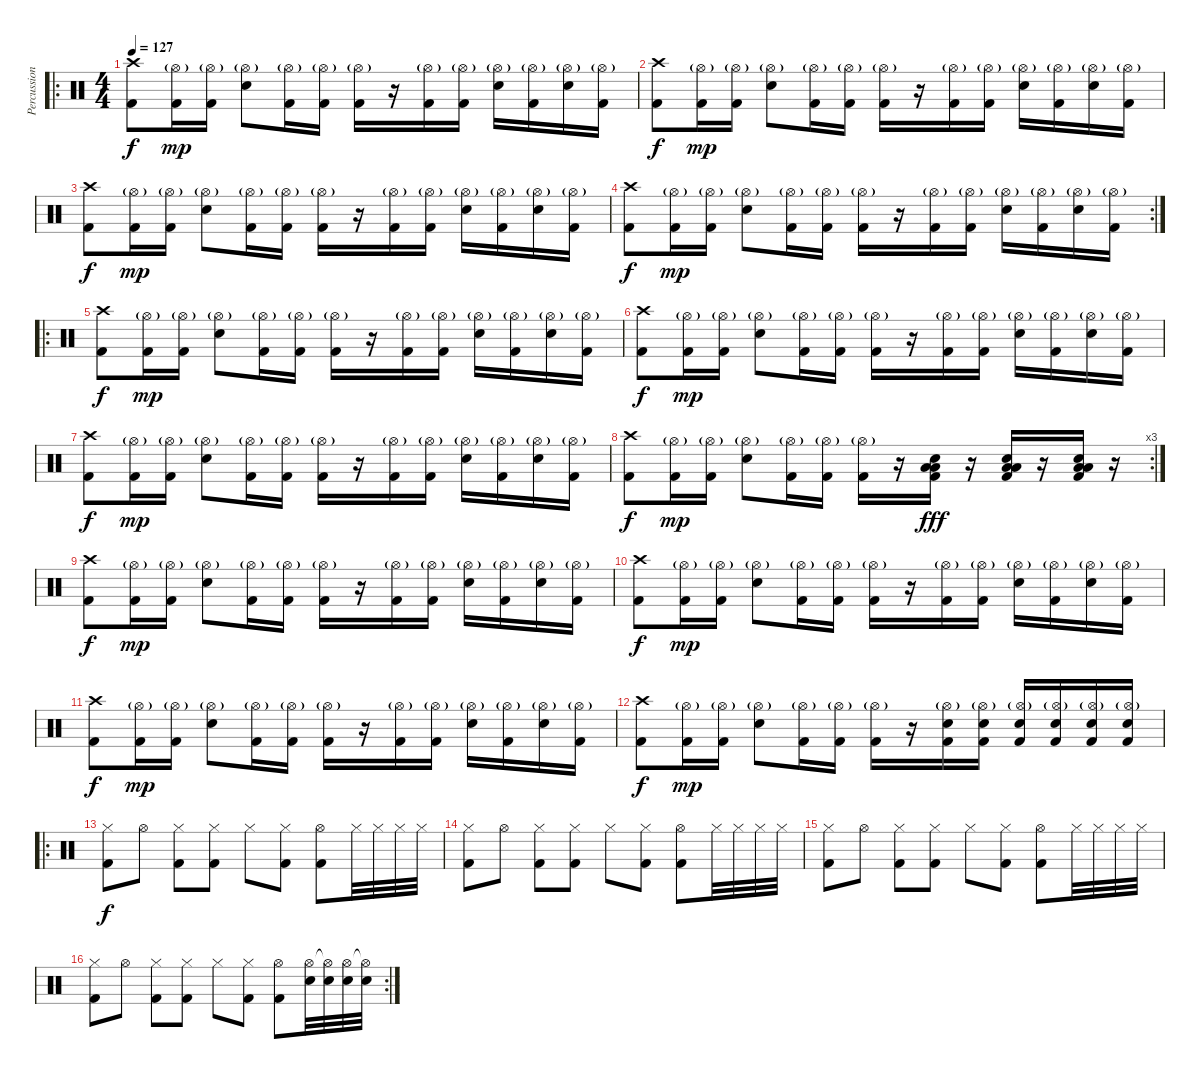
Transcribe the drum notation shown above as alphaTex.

\track ("Percussions" "Percussion") {instrument percussion}
\staff {score}
\articulation defaults
\ro
\ts (4 4)
\tempo 127
\clef neutral
\ks c
("Crash high (hit)" "Kick (hit) 2").8{dy f} ("Hi-Hat (open)"{g} "Kick (hit) 2").16{dy mp} ("Hi-Hat (open)"{g} "Kick (hit) 2").16 ("Hi-Hat (open)"{g} "Electric Snare (hit)").8 ("Hi-Hat (open)"{g} "Kick (hit) 2").16 ("Hi-Hat (open)"{g} "Kick (hit) 2").16 ("Hi-Hat (open)"{g} "Kick (hit) 2").16 r.16 ("Hi-Hat (open)"{g} "Kick (hit) 2").16 ("Hi-Hat (open)"{g} "Kick (hit) 2").16 ("Hi-Hat (open)"{g} "Electric Snare (hit)").16 ("Hi-Hat (open)"{g} "Kick (hit) 2").16 ("Hi-Hat (open)"{g} "Electric Snare (hit)").16 ("Hi-Hat (open)"{g} "Kick (hit) 2").16 |
("Crash high (hit)" "Kick (hit) 2").8{dy f} ("Hi-Hat (open)"{g} "Kick (hit) 2").16{dy mp} ("Hi-Hat (open)"{g} "Kick (hit) 2").16 ("Hi-Hat (open)"{g} "Electric Snare (hit)").8 ("Hi-Hat (open)"{g} "Kick (hit) 2").16 ("Hi-Hat (open)"{g} "Kick (hit) 2").16 ("Hi-Hat (open)"{g} "Kick (hit) 2").16 r.16 ("Hi-Hat (open)"{g} "Kick (hit) 2").16 ("Hi-Hat (open)"{g} "Kick (hit) 2").16 ("Hi-Hat (open)"{g} "Electric Snare (hit)").16 ("Hi-Hat (open)"{g} "Kick (hit) 2").16 ("Hi-Hat (open)"{g} "Electric Snare (hit)").16 ("Hi-Hat (open)"{g} "Kick (hit) 2").16 |
("Crash high (hit)" "Kick (hit) 2").8{dy f} ("Hi-Hat (open)"{g} "Kick (hit) 2").16{dy mp} ("Hi-Hat (open)"{g} "Kick (hit) 2").16 ("Hi-Hat (open)"{g} "Electric Snare (hit)").8 ("Hi-Hat (open)"{g} "Kick (hit) 2").16 ("Hi-Hat (open)"{g} "Kick (hit) 2").16 ("Hi-Hat (open)"{g} "Kick (hit) 2").16 r.16 ("Hi-Hat (open)"{g} "Kick (hit) 2").16 ("Hi-Hat (open)"{g} "Kick (hit) 2").16 ("Hi-Hat (open)"{g} "Electric Snare (hit)").16 ("Hi-Hat (open)"{g} "Kick (hit) 2").16 ("Hi-Hat (open)"{g} "Electric Snare (hit)").16 ("Hi-Hat (open)"{g} "Kick (hit) 2").16 |
\rc 2
("Crash high (hit)" "Kick (hit) 2").8{dy f} ("Hi-Hat (open)"{g} "Kick (hit) 2").16{dy mp} ("Hi-Hat (open)"{g} "Kick (hit) 2").16 ("Hi-Hat (open)"{g} "Electric Snare (hit)").8 ("Hi-Hat (open)"{g} "Kick (hit) 2").16 ("Hi-Hat (open)"{g} "Kick (hit) 2").16 ("Hi-Hat (open)"{g} "Kick (hit) 2").16 r.16 ("Hi-Hat (open)"{g} "Kick (hit) 2").16 ("Hi-Hat (open)"{g} "Kick (hit) 2").16 ("Hi-Hat (open)"{g} "Electric Snare (hit)").16 ("Hi-Hat (open)"{g} "Kick (hit) 2").16 ("Hi-Hat (open)"{g} "Electric Snare (hit)").16 ("Hi-Hat (open)"{g} "Kick (hit) 2").16 |
\ro
("Crash high (hit)" "Kick (hit) 2").8{dy f} ("Hi-Hat (open)"{g} "Kick (hit) 2").16{dy mp} ("Hi-Hat (open)"{g} "Kick (hit) 2").16 ("Hi-Hat (open)"{g} "Electric Snare (hit)").8 ("Hi-Hat (open)"{g} "Kick (hit) 2").16 ("Hi-Hat (open)"{g} "Kick (hit) 2").16 ("Hi-Hat (open)"{g} "Kick (hit) 2").16 r.16 ("Hi-Hat (open)"{g} "Kick (hit) 2").16 ("Hi-Hat (open)"{g} "Kick (hit) 2").16 ("Hi-Hat (open)"{g} "Electric Snare (hit)").16 ("Hi-Hat (open)"{g} "Kick (hit) 2").16 ("Hi-Hat (open)"{g} "Electric Snare (hit)").16 ("Hi-Hat (open)"{g} "Kick (hit) 2").16 |
("Crash high (hit)" "Kick (hit) 2").8{dy f} ("Hi-Hat (open)"{g} "Kick (hit) 2").16{dy mp} ("Hi-Hat (open)"{g} "Kick (hit) 2").16 ("Hi-Hat (open)"{g} "Electric Snare (hit)").8 ("Hi-Hat (open)"{g} "Kick (hit) 2").16 ("Hi-Hat (open)"{g} "Kick (hit) 2").16 ("Hi-Hat (open)"{g} "Kick (hit) 2").16 r.16 ("Hi-Hat (open)"{g} "Kick (hit) 2").16 ("Hi-Hat (open)"{g} "Kick (hit) 2").16 ("Hi-Hat (open)"{g} "Electric Snare (hit)").16 ("Hi-Hat (open)"{g} "Kick (hit) 2").16 ("Hi-Hat (open)"{g} "Electric Snare (hit)").16 ("Hi-Hat (open)"{g} "Kick (hit) 2").16 |
("Crash high (hit)" "Kick (hit) 2").8{dy f} ("Hi-Hat (open)"{g} "Kick (hit) 2").16{dy mp} ("Hi-Hat (open)"{g} "Kick (hit) 2").16 ("Hi-Hat (open)"{g} "Electric Snare (hit)").8 ("Hi-Hat (open)"{g} "Kick (hit) 2").16 ("Hi-Hat (open)"{g} "Kick (hit) 2").16 ("Hi-Hat (open)"{g} "Kick (hit) 2").16 r.16 ("Hi-Hat (open)"{g} "Kick (hit) 2").16 ("Hi-Hat (open)"{g} "Kick (hit) 2").16 ("Hi-Hat (open)"{g} "Electric Snare (hit)").16 ("Hi-Hat (open)"{g} "Kick (hit) 2").16 ("Hi-Hat (open)"{g} "Electric Snare (hit)").16 ("Hi-Hat (open)"{g} "Kick (hit) 2").16 |
\rc 3
("Crash high (hit)" "Kick (hit) 2").8{dy f} ("Hi-Hat (open)"{g} "Kick (hit) 2").16{dy mp} ("Hi-Hat (open)"{g} "Kick (hit) 2").16 ("Hi-Hat (open)"{g} "Electric Snare (hit)").8 ("Hi-Hat (open)"{g} "Kick (hit) 2").16 ("Hi-Hat (open)"{g} "Kick (hit) 2").16 ("Hi-Hat (open)"{g} "Kick (hit) 2").16 r.16 ("Low Floor Tom (hit)" "Low Floor Tom (hit)" "Kick (hit) 2" "Electric Snare (hit)").16{dy fff} r.16 ("Low Floor Tom (hit)" "Low Floor Tom (hit)" "Kick (hit) 2" "Electric Snare (hit)").16 r.16 ("Low Floor Tom (hit)" "Low Floor Tom (hit)" "Kick (hit) 2" "Electric Snare (hit)").16 r.16 |
("Crash high (hit)" "Kick (hit) 2").8{dy f} ("Hi-Hat (open)"{g} "Kick (hit) 2").16{dy mp} ("Hi-Hat (open)"{g} "Kick (hit) 2").16 ("Hi-Hat (open)"{g} "Electric Snare (hit)").8 ("Hi-Hat (open)"{g} "Kick (hit) 2").16 ("Hi-Hat (open)"{g} "Kick (hit) 2").16 ("Hi-Hat (open)"{g} "Kick (hit) 2").16 r.16 ("Hi-Hat (open)"{g} "Kick (hit) 2").16 ("Hi-Hat (open)"{g} "Kick (hit) 2").16 ("Hi-Hat (open)"{g} "Electric Snare (hit)").16 ("Hi-Hat (open)"{g} "Kick (hit) 2").16 ("Hi-Hat (open)"{g} "Electric Snare (hit)").16 ("Hi-Hat (open)"{g} "Kick (hit) 2").16 |
("Crash high (hit)" "Kick (hit) 2").8{dy f} ("Hi-Hat (open)"{g} "Kick (hit) 2").16{dy mp} ("Hi-Hat (open)"{g} "Kick (hit) 2").16 ("Hi-Hat (open)"{g} "Electric Snare (hit)").8 ("Hi-Hat (open)"{g} "Kick (hit) 2").16 ("Hi-Hat (open)"{g} "Kick (hit) 2").16 ("Hi-Hat (open)"{g} "Kick (hit) 2").16 r.16 ("Hi-Hat (open)"{g} "Kick (hit) 2").16 ("Hi-Hat (open)"{g} "Kick (hit) 2").16 ("Hi-Hat (open)"{g} "Electric Snare (hit)").16 ("Hi-Hat (open)"{g} "Kick (hit) 2").16 ("Hi-Hat (open)"{g} "Electric Snare (hit)").16 ("Hi-Hat (open)"{g} "Kick (hit) 2").16 |
("Crash high (hit)" "Kick (hit) 2").8{dy f} ("Hi-Hat (open)"{g} "Kick (hit) 2").16{dy mp} ("Hi-Hat (open)"{g} "Kick (hit) 2").16 ("Hi-Hat (open)"{g} "Electric Snare (hit)").8 ("Hi-Hat (open)"{g} "Kick (hit) 2").16 ("Hi-Hat (open)"{g} "Kick (hit) 2").16 ("Hi-Hat (open)"{g} "Kick (hit) 2").16 r.16 ("Hi-Hat (open)"{g} "Kick (hit) 2").16 ("Hi-Hat (open)"{g} "Kick (hit) 2").16 ("Hi-Hat (open)"{g} "Electric Snare (hit)").16 ("Hi-Hat (open)"{g} "Kick (hit) 2").16 ("Hi-Hat (open)"{g} "Electric Snare (hit)").16 ("Hi-Hat (open)"{g} "Kick (hit) 2").16 |
("Crash high (hit)" "Kick (hit) 2").8{dy f} ("Hi-Hat (open)"{g} "Kick (hit) 2").16{dy mp} ("Hi-Hat (open)"{g} "Kick (hit) 2").16 ("Hi-Hat (open)"{g} "Electric Snare (hit)").8 ("Hi-Hat (open)"{g} "Kick (hit) 2").16 ("Hi-Hat (open)"{g} "Kick (hit) 2").16 ("Hi-Hat (open)"{g} "Kick (hit) 2").16 r.16 ("Hi-Hat (open)"{g} "Kick (hit) 2" "Electric Snare (hit)").16 ("Hi-Hat (open)"{g} "Kick (hit) 2" "Electric Snare (hit)").16 ("Hi-Hat (open)"{g} "Kick (hit) 2" "Electric Snare (hit)").16 ("Hi-Hat (open)"{g} "Kick (hit) 2" "Electric Snare (hit)").16 ("Hi-Hat (open)"{g} "Kick (hit) 2" "Electric Snare (hit)").16 ("Hi-Hat (open)"{g} "Kick (hit) 2" "Electric Snare (hit)").16 |
\ro
("Kick (hit) 2" "Hi-Hat (closed)").8{dy f} "Hi-Hat (open)".8 ("Kick (hit) 2" "Hi-Hat (closed)").8 ("Kick (hit) 2" "Hi-Hat (closed)").8 "Hi-Hat (closed)".8 ("Kick (hit) 2" "Hi-Hat (closed)").8 ("Kick (hit) 2" "Hi-Hat (open)").8 "Hi-Hat (closed)".32 "Hi-Hat (closed)".32 "Hi-Hat (closed)".32 "Hi-Hat (closed)".32 |
("Kick (hit) 2" "Hi-Hat (closed)").8 "Hi-Hat (open)".8 ("Kick (hit) 2" "Hi-Hat (closed)").8 ("Kick (hit) 2" "Hi-Hat (closed)").8 "Hi-Hat (closed)".8 ("Kick (hit) 2" "Hi-Hat (closed)").8 ("Kick (hit) 2" "Hi-Hat (open)").8 "Hi-Hat (closed)".32 "Hi-Hat (closed)".32 "Hi-Hat (closed)".32 "Hi-Hat (closed)".32 |
("Kick (hit) 2" "Hi-Hat (closed)").8 "Hi-Hat (open)".8 ("Kick (hit) 2" "Hi-Hat (closed)").8 ("Kick (hit) 2" "Hi-Hat (closed)").8 "Hi-Hat (closed)".8 ("Kick (hit) 2" "Hi-Hat (closed)").8 ("Kick (hit) 2" "Hi-Hat (open)").8 "Hi-Hat (closed)".32 "Hi-Hat (closed)".32 "Hi-Hat (closed)".32 "Hi-Hat (closed)".32 |
\rc 2
("Kick (hit) 2" "Hi-Hat (closed)").8 "Hi-Hat (open)".8 ("Kick (hit) 2" "Hi-Hat (closed)").8 ("Kick (hit) 2" "Hi-Hat (closed)").8 "Hi-Hat (closed)".8 ("Kick (hit) 2" "Hi-Hat (closed)").8 ("Kick (hit) 2" "Hi-Hat (open)").8 ("Electric Snare (hit)" "Hi-Hat (open)").32 ("Electric Snare (hit)" "Hi-Hat (open)"{t}).32 ("Electric Snare (hit)" "Hi-Hat (open)").32 ("Electric Snare (hit)" "Hi-Hat (open)"{t}).32
